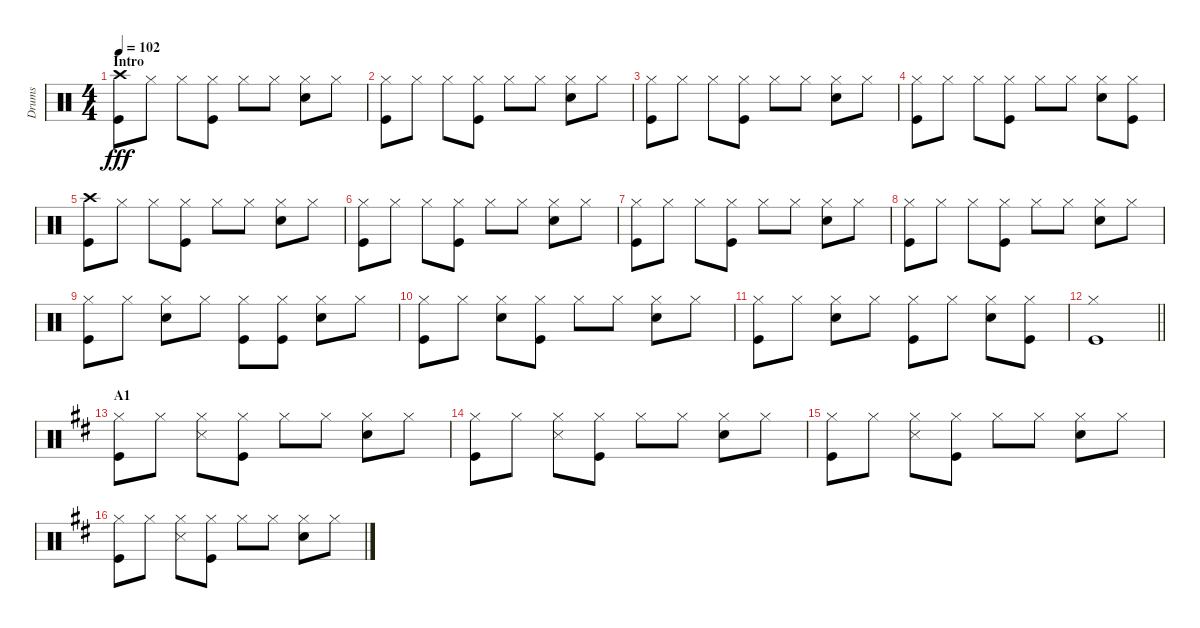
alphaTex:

\track ("Drums" "Drums") {instrument percussion}
\staff {score}
\articulation defaults
\ts (4 4)
\section ("" "Intro")
\tempo 102
\clef neutral
\ks c
("Crash high (hit)" "Kick (hit)").8{dy fff} "Hi-Hat (closed)".8 "Hi-Hat (closed)".8 ("Hi-Hat (closed)" "Kick (hit)").8 "Hi-Hat (closed)".8 "Hi-Hat (closed)".8 ("Hi-Hat (closed)" "Snare (hit) 2").8 "Hi-Hat (closed)".8 |
("Hi-Hat (closed)" "Kick (hit)").8 "Hi-Hat (closed)".8 "Hi-Hat (closed)".8 ("Hi-Hat (closed)" "Kick (hit)").8 "Hi-Hat (closed)".8 "Hi-Hat (closed)".8 ("Hi-Hat (closed)" "Snare (hit) 2").8 "Hi-Hat (closed)".8 |
("Hi-Hat (closed)" "Kick (hit)").8 "Hi-Hat (closed)".8 "Hi-Hat (closed)".8 ("Hi-Hat (closed)" "Kick (hit)").8 "Hi-Hat (closed)".8 "Hi-Hat (closed)".8 ("Hi-Hat (closed)" "Snare (hit) 2").8 "Hi-Hat (closed)".8 |
("Hi-Hat (closed)" "Kick (hit)").8 "Hi-Hat (closed)".8 "Hi-Hat (closed)".8 ("Hi-Hat (closed)" "Kick (hit)").8 "Hi-Hat (closed)".8 "Hi-Hat (closed)".8 ("Hi-Hat (closed)" "Snare (hit) 2").8 ("Hi-Hat (closed)" "Kick (hit)").8 |
("Crash high (hit)" "Kick (hit)").8 "Hi-Hat (closed)".8 "Hi-Hat (closed)".8 ("Hi-Hat (closed)" "Kick (hit)").8 "Hi-Hat (closed)".8 "Hi-Hat (closed)".8 ("Hi-Hat (closed)" "Snare (hit) 2").8 "Hi-Hat (closed)".8 |
("Hi-Hat (closed)" "Kick (hit)").8 "Hi-Hat (closed)".8 "Hi-Hat (closed)".8 ("Hi-Hat (closed)" "Kick (hit)").8 "Hi-Hat (closed)".8 "Hi-Hat (closed)".8 ("Hi-Hat (closed)" "Snare (hit) 2").8 "Hi-Hat (closed)".8 |
("Hi-Hat (closed)" "Kick (hit)").8 "Hi-Hat (closed)".8 "Hi-Hat (closed)".8 ("Hi-Hat (closed)" "Kick (hit)").8 "Hi-Hat (closed)".8 "Hi-Hat (closed)".8 ("Hi-Hat (closed)" "Snare (hit) 2").8 "Hi-Hat (closed)".8 |
("Hi-Hat (closed)" "Kick (hit)").8 "Hi-Hat (closed)".8 "Hi-Hat (closed)".8 ("Hi-Hat (closed)" "Kick (hit)").8 "Hi-Hat (closed)".8 "Hi-Hat (closed)".8 ("Hi-Hat (closed)" "Snare (hit) 2").8 "Hi-Hat (closed)".8 |
("Hi-Hat (closed)" "Kick (hit)").8 "Hi-Hat (closed)".8 ("Hi-Hat (closed)" "Snare (hit) 2").8 "Hi-Hat (closed)".8 ("Hi-Hat (closed)" "Kick (hit)").8 ("Hi-Hat (closed)" "Kick (hit)").8 ("Hi-Hat (closed)" "Snare (hit) 2").8 "Hi-Hat (closed)".8 |
("Hi-Hat (closed)" "Kick (hit)").8 "Hi-Hat (closed)".8 ("Hi-Hat (closed)" "Snare (hit) 2").8 ("Hi-Hat (closed)" "Kick (hit)").8 "Hi-Hat (closed)".8 "Hi-Hat (closed)".8 ("Hi-Hat (closed)" "Snare (hit) 2").8 "Hi-Hat (closed)".8 |
("Hi-Hat (closed)" "Kick (hit)").8 "Hi-Hat (closed)".8 ("Hi-Hat (closed)" "Snare (hit) 2").8 "Hi-Hat (closed)".8 ("Hi-Hat (closed)" "Kick (hit)").8 "Hi-Hat (closed)".8 ("Hi-Hat (closed)" "Snare (hit) 2").8 ("Hi-Hat (closed)" "Kick (hit)").8 |
\barLineRight lightlight
("Hi-Hat (closed)" "Kick (hit)").1 |
\section ("" "A1")
\ks d
("Hi-Hat (closed)" "Kick (hit)").8 "Hi-Hat (closed)".8 ("Hi-Hat (closed)" "Snare (side stick) 3").8 ("Hi-Hat (closed)" "Kick (hit)").8 "Hi-Hat (closed)".8 "Hi-Hat (closed)".8 ("Hi-Hat (closed)" "Snare (hit) 2").8 "Hi-Hat (closed)".8 |
("Hi-Hat (closed)" "Kick (hit)").8 "Hi-Hat (closed)".8 ("Hi-Hat (closed)" "Snare (side stick) 3").8 ("Hi-Hat (closed)" "Kick (hit)").8 "Hi-Hat (closed)".8 "Hi-Hat (closed)".8 ("Hi-Hat (closed)" "Snare (hit) 2").8 "Hi-Hat (closed)".8 |
("Hi-Hat (closed)" "Kick (hit)").8 "Hi-Hat (closed)".8 ("Hi-Hat (closed)" "Snare (side stick) 3").8 ("Hi-Hat (closed)" "Kick (hit)").8 "Hi-Hat (closed)".8 "Hi-Hat (closed)".8 ("Hi-Hat (closed)" "Snare (hit) 2").8 "Hi-Hat (closed)".8 |
("Hi-Hat (closed)" "Kick (hit)").8 "Hi-Hat (closed)".8 ("Hi-Hat (closed)" "Snare (side stick) 3").8 ("Hi-Hat (closed)" "Kick (hit)").8 "Hi-Hat (closed)".8 "Hi-Hat (closed)".8 ("Hi-Hat (closed)" "Snare (hit) 2").8 "Hi-Hat (closed)".8
